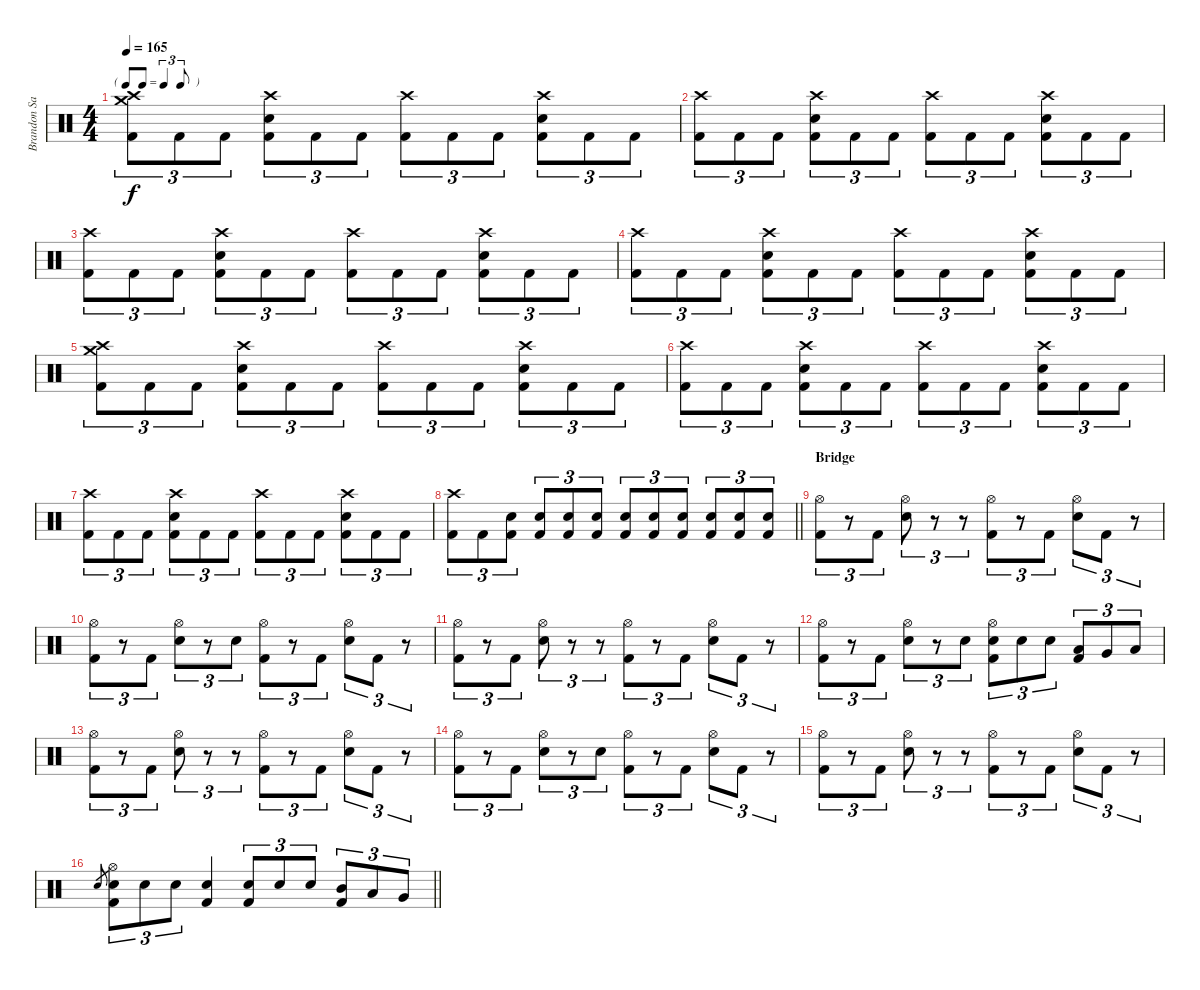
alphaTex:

\track ("Brandon Saller" "Brandon Sa") {instrument percussion}
\staff {score}
\articulation defaults
\ts (4 4)
\tf triplet8th
\tempo 165
\clef neutral
\ks c
("Crash high (hit)" "Crash medium (hit)" "Kick (hit) 2").8{tu (3 2) dy f} "Kick (hit) 2".8{tu (3 2)} "Kick (hit) 2".8{tu (3 2)} ("Crash high (hit)" "Electric Snare (hit)" "Kick (hit) 2").8{tu (3 2)} "Kick (hit) 2".8{tu (3 2)} "Kick (hit) 2".8{tu (3 2)} ("Crash high (hit)" "Kick (hit) 2").8{tu (3 2)} "Kick (hit) 2".8{tu (3 2)} "Kick (hit) 2".8{tu (3 2)} ("Crash high (hit)" "Electric Snare (hit)" "Kick (hit) 2").8{tu (3 2)} "Kick (hit) 2".8{tu (3 2)} "Kick (hit) 2".8{tu (3 2)} |
("Crash high (hit)" "Kick (hit) 2").8{tu (3 2)} "Kick (hit) 2".8{tu (3 2)} "Kick (hit) 2".8{tu (3 2)} ("Crash high (hit)" "Electric Snare (hit)" "Kick (hit) 2").8{tu (3 2)} "Kick (hit) 2".8{tu (3 2)} "Kick (hit) 2".8{tu (3 2)} ("Crash high (hit)" "Kick (hit) 2").8{tu (3 2)} "Kick (hit) 2".8{tu (3 2)} "Kick (hit) 2".8{tu (3 2)} ("Crash high (hit)" "Electric Snare (hit)" "Kick (hit) 2").8{tu (3 2)} "Kick (hit) 2".8{tu (3 2)} "Kick (hit) 2".8{tu (3 2)} |
("Crash high (hit)" "Kick (hit) 2").8{tu (3 2)} "Kick (hit) 2".8{tu (3 2)} "Kick (hit) 2".8{tu (3 2)} ("Crash high (hit)" "Electric Snare (hit)" "Kick (hit) 2").8{tu (3 2)} "Kick (hit) 2".8{tu (3 2)} "Kick (hit) 2".8{tu (3 2)} ("Crash high (hit)" "Kick (hit) 2").8{tu (3 2)} "Kick (hit) 2".8{tu (3 2)} "Kick (hit) 2".8{tu (3 2)} ("Crash high (hit)" "Electric Snare (hit)" "Kick (hit) 2").8{tu (3 2)} "Kick (hit) 2".8{tu (3 2)} "Kick (hit) 2".8{tu (3 2)} |
("Crash high (hit)" "Kick (hit) 2").8{tu (3 2)} "Kick (hit) 2".8{tu (3 2)} "Kick (hit) 2".8{tu (3 2)} ("Crash high (hit)" "Electric Snare (hit)" "Kick (hit) 2").8{tu (3 2)} "Kick (hit) 2".8{tu (3 2)} "Kick (hit) 2".8{tu (3 2)} ("Crash high (hit)" "Kick (hit) 2").8{tu (3 2)} "Kick (hit) 2".8{tu (3 2)} "Kick (hit) 2".8{tu (3 2)} ("Crash high (hit)" "Electric Snare (hit)" "Kick (hit) 2").8{tu (3 2)} "Kick (hit) 2".8{tu (3 2)} "Kick (hit) 2".8{tu (3 2)} |
("Crash high (hit)" "Crash medium (hit)" "Kick (hit) 2").8{tu (3 2)} "Kick (hit) 2".8{tu (3 2)} "Kick (hit) 2".8{tu (3 2)} ("Crash high (hit)" "Electric Snare (hit)" "Kick (hit) 2").8{tu (3 2)} "Kick (hit) 2".8{tu (3 2)} "Kick (hit) 2".8{tu (3 2)} ("Crash high (hit)" "Kick (hit) 2").8{tu (3 2)} "Kick (hit) 2".8{tu (3 2)} "Kick (hit) 2".8{tu (3 2)} ("Crash high (hit)" "Electric Snare (hit)" "Kick (hit) 2").8{tu (3 2)} "Kick (hit) 2".8{tu (3 2)} "Kick (hit) 2".8{tu (3 2)} |
("Crash high (hit)" "Kick (hit) 2").8{tu (3 2)} "Kick (hit) 2".8{tu (3 2)} "Kick (hit) 2".8{tu (3 2)} ("Crash high (hit)" "Electric Snare (hit)" "Kick (hit) 2").8{tu (3 2)} "Kick (hit) 2".8{tu (3 2)} "Kick (hit) 2".8{tu (3 2)} ("Crash high (hit)" "Kick (hit) 2").8{tu (3 2)} "Kick (hit) 2".8{tu (3 2)} "Kick (hit) 2".8{tu (3 2)} ("Crash high (hit)" "Electric Snare (hit)" "Kick (hit) 2").8{tu (3 2)} "Kick (hit) 2".8{tu (3 2)} "Kick (hit) 2".8{tu (3 2)} |
("Crash high (hit)" "Kick (hit) 2").8{tu (3 2)} "Kick (hit) 2".8{tu (3 2)} "Kick (hit) 2".8{tu (3 2)} ("Crash high (hit)" "Electric Snare (hit)" "Kick (hit) 2").8{tu (3 2)} "Kick (hit) 2".8{tu (3 2)} "Kick (hit) 2".8{tu (3 2)} ("Crash high (hit)" "Kick (hit) 2").8{tu (3 2)} "Kick (hit) 2".8{tu (3 2)} "Kick (hit) 2".8{tu (3 2)} ("Crash high (hit)" "Electric Snare (hit)" "Kick (hit) 2").8{tu (3 2)} "Kick (hit) 2".8{tu (3 2)} "Kick (hit) 2".8{tu (3 2)} |
\barLineRight lightlight
("Crash high (hit)" "Kick (hit) 2").8{tu (3 2)} "Kick (hit) 2".8{tu (3 2)} ("Electric Snare (hit)" "Kick (hit) 2").8{tu (3 2)} ("Electric Snare (hit)" "Kick (hit) 2").8{tu (3 2)} ("Electric Snare (hit)" "Kick (hit) 2").8{tu (3 2)} ("Electric Snare (hit)" "Kick (hit) 2").8{tu (3 2)} ("Electric Snare (hit)" "Kick (hit) 2").8{tu (3 2)} ("Electric Snare (hit)" "Kick (hit) 2").8{tu (3 2)} ("Electric Snare (hit)" "Kick (hit) 2").8{tu (3 2)} ("Electric Snare (hit)" "Kick (hit) 2").8{tu (3 2)} ("Electric Snare (hit)" "Kick (hit) 2").8{tu (3 2)} ("Electric Snare (hit)" "Kick (hit) 2").8{tu (3 2)} |
\section ("" "Bridge")
("Hi-Hat (open)" "Kick (hit) 2").8{tu (3 2)} r.8{tu (3 2)} "Kick (hit) 2".8{tu (3 2)} ("Hi-Hat (open)" "Electric Snare (hit)").8{tu (3 2)} r.8{tu (3 2)} r.8{tu (3 2)} ("Hi-Hat (open)" "Kick (hit) 2").8{tu (3 2)} r.8{tu (3 2)} "Kick (hit) 2".8{tu (3 2)} ("Hi-Hat (open)" "Electric Snare (hit)").8{tu (3 2)} "Kick (hit) 2".8{tu (3 2)} r.8{tu (3 2)} |
("Hi-Hat (open)" "Kick (hit) 2").8{tu (3 2)} r.8{tu (3 2)} "Kick (hit) 2".8{tu (3 2)} ("Hi-Hat (open)" "Electric Snare (hit)").8{tu (3 2)} r.8{tu (3 2)} "Electric Snare (hit)".8{tu (3 2)} ("Hi-Hat (open)" "Kick (hit) 2").8{tu (3 2)} r.8{tu (3 2)} "Kick (hit) 2".8{tu (3 2)} ("Hi-Hat (open)" "Electric Snare (hit)").8{tu (3 2)} "Kick (hit) 2".8{tu (3 2)} r.8{tu (3 2)} |
("Hi-Hat (open)" "Kick (hit) 2").8{tu (3 2)} r.8{tu (3 2)} "Kick (hit) 2".8{tu (3 2)} ("Hi-Hat (open)" "Electric Snare (hit)").8{tu (3 2)} r.8{tu (3 2)} r.8{tu (3 2)} ("Hi-Hat (open)" "Kick (hit) 2").8{tu (3 2)} r.8{tu (3 2)} "Kick (hit) 2".8{tu (3 2)} ("Hi-Hat (open)" "Electric Snare (hit)").8{tu (3 2)} "Kick (hit) 2".8{tu (3 2)} r.8{tu (3 2)} |
("Hi-Hat (open)" "Kick (hit) 2").8{tu (3 2)} r.8{tu (3 2)} "Kick (hit) 2".8{tu (3 2)} ("Hi-Hat (open)" "Electric Snare (hit)").8{tu (3 2)} r.8{tu (3 2)} "Electric Snare (hit)".8{tu (3 2)} ("Hi-Hat (open)" "Electric Snare (hit)" "Kick (hit) 2").8{tu (3 2)} "Electric Snare (hit)".8{tu (3 2)} "Electric Snare (hit)".8{tu (3 2)} ("Low Tom (hit)" "Kick (hit) 2").8{tu (3 2)} "Very Low Tom (hit)".8{tu (3 2)} "Low Floor Tom (hit)".8{tu (3 2)} |
("Hi-Hat (open)" "Kick (hit) 2").8{tu (3 2)} r.8{tu (3 2)} "Kick (hit) 2".8{tu (3 2)} ("Hi-Hat (open)" "Electric Snare (hit)").8{tu (3 2)} r.8{tu (3 2)} r.8{tu (3 2)} ("Hi-Hat (open)" "Kick (hit) 2").8{tu (3 2)} r.8{tu (3 2)} "Kick (hit) 2".8{tu (3 2)} ("Hi-Hat (open)" "Electric Snare (hit)").8{tu (3 2)} "Kick (hit) 2".8{tu (3 2)} r.8{tu (3 2)} |
("Hi-Hat (open)" "Kick (hit) 2").8{tu (3 2)} r.8{tu (3 2)} "Kick (hit) 2".8{tu (3 2)} ("Hi-Hat (open)" "Electric Snare (hit)").8{tu (3 2)} r.8{tu (3 2)} "Electric Snare (hit)".8{tu (3 2)} ("Hi-Hat (open)" "Kick (hit) 2").8{tu (3 2)} r.8{tu (3 2)} "Kick (hit) 2".8{tu (3 2)} ("Hi-Hat (open)" "Electric Snare (hit)").8{tu (3 2)} "Kick (hit) 2".8{tu (3 2)} r.8{tu (3 2)} |
("Hi-Hat (open)" "Kick (hit) 2").8{tu (3 2)} r.8{tu (3 2)} "Kick (hit) 2".8{tu (3 2)} ("Hi-Hat (open)" "Electric Snare (hit)").8{tu (3 2)} r.8{tu (3 2)} r.8{tu (3 2)} ("Hi-Hat (open)" "Kick (hit) 2").8{tu (3 2)} r.8{tu (3 2)} "Kick (hit) 2".8{tu (3 2)} ("Hi-Hat (open)" "Electric Snare (hit)").8{tu (3 2)} "Kick (hit) 2".8{tu (3 2)} r.8{tu (3 2)} |
\barLineRight lightlight "Electric Snare (hit)".8{gr}
("Hi-Hat (open)" "Electric Snare (hit)" "Kick (hit) 2").8{tu (3 2)} "Electric Snare (hit)".8{tu (3 2)} "Electric Snare (hit)".8{tu (3 2)} ("Electric Snare (hit)" "Kick (hit) 2").4 ("Electric Snare (hit)" "Kick (hit) 2").8{tu (3 2)} "Electric Snare (hit)".8{tu (3 2)} "Electric Snare (hit)".8{tu (3 2)} ("Mid Tom (hit)" "Kick (hit) 2").8{tu (3 2)} "Low Tom (hit)".8{tu (3 2)} "Very Low Tom (hit)".8{tu (3 2)}
